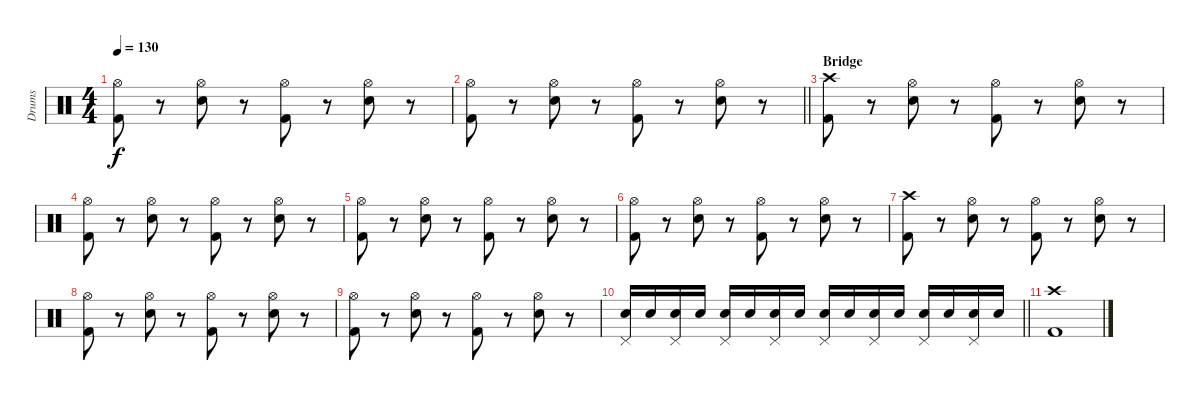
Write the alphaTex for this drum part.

\track ("Drums" "Drums") {instrument percussion}
\staff {score}
\articulation defaults
\ts (4 4)
\tempo 130
\clef neutral
\ks c
("Hi-Hat (open)" "Kick (hit) 2").8{dy f} r.8 ("Hi-Hat (open)" "Snare (hit) 2").8 r.8 ("Hi-Hat (open)" "Kick (hit) 2").8 r.8 ("Hi-Hat (open)" "Snare (hit) 2").8 r.8 |
\barLineRight lightlight
("Hi-Hat (open)" "Kick (hit) 2").8 r.8 ("Hi-Hat (open)" "Snare (hit) 2").8 r.8 ("Hi-Hat (open)" "Kick (hit) 2").8 r.8 ("Hi-Hat (open)" "Snare (hit) 2").8 r.8 |
\section ("" "Bridge")
("Crash high (hit)" "Kick (hit) 2").8 r.8 ("Hi-Hat (open)" "Snare (hit) 2").8 r.8 ("Hi-Hat (open)" "Kick (hit) 2").8 r.8 ("Hi-Hat (open)" "Snare (hit) 2").8 r.8 |
("Hi-Hat (open)" "Kick (hit) 2").8 r.8 ("Hi-Hat (open)" "Snare (hit) 2").8 r.8 ("Hi-Hat (open)" "Kick (hit) 2").8 r.8 ("Hi-Hat (open)" "Snare (hit) 2").8 r.8 |
("Hi-Hat (open)" "Kick (hit) 2").8 r.8 ("Hi-Hat (open)" "Snare (hit) 2").8 r.8 ("Hi-Hat (open)" "Kick (hit) 2").8 r.8 ("Hi-Hat (open)" "Snare (hit) 2").8 r.8 |
("Hi-Hat (open)" "Kick (hit) 2").8 r.8 ("Hi-Hat (open)" "Snare (hit) 2").8 r.8 ("Hi-Hat (open)" "Kick (hit) 2").8 r.8 ("Hi-Hat (open)" "Snare (hit) 2").8 r.8 |
("Crash high (hit)" "Kick (hit) 2").8 r.8 ("Hi-Hat (open)" "Snare (hit) 2").8 r.8 ("Hi-Hat (open)" "Kick (hit) 2").8 r.8 ("Hi-Hat (open)" "Snare (hit) 2").8 r.8 |
("Hi-Hat (open)" "Kick (hit) 2").8 r.8 ("Hi-Hat (open)" "Snare (hit) 2").8 r.8 ("Hi-Hat (open)" "Kick (hit) 2").8 r.8 ("Hi-Hat (open)" "Snare (hit) 2").8 r.8 |
("Hi-Hat (open)" "Kick (hit) 2").8 r.8 ("Hi-Hat (open)" "Snare (hit) 2").8 r.8 ("Hi-Hat (open)" "Kick (hit) 2").8 r.8 ("Hi-Hat (open)" "Snare (hit) 2").8 r.8 |
\barLineRight lightlight
("Pedal Hi-Hat (hit)" "Snare (hit) 2").16 "Snare (hit) 2".16 ("Pedal Hi-Hat (hit)" "Snare (hit) 2").16 "Snare (hit) 2".16 ("Pedal Hi-Hat (hit)" "Snare (hit) 2").16 "Snare (hit) 2".16 ("Pedal Hi-Hat (hit)" "Snare (hit) 2").16 "Snare (hit) 2".16 ("Pedal Hi-Hat (hit)" "Snare (hit) 2").16 "Snare (hit) 2".16 ("Pedal Hi-Hat (hit)" "Snare (hit) 2").16 "Snare (hit) 2".16 ("Pedal Hi-Hat (hit)" "Snare (hit) 2").16 "Snare (hit) 2".16 ("Pedal Hi-Hat (hit)" "Snare (hit) 2").16 "Snare (hit) 2".16 |
("Crash high (hit)" "Kick (hit) 2").1
